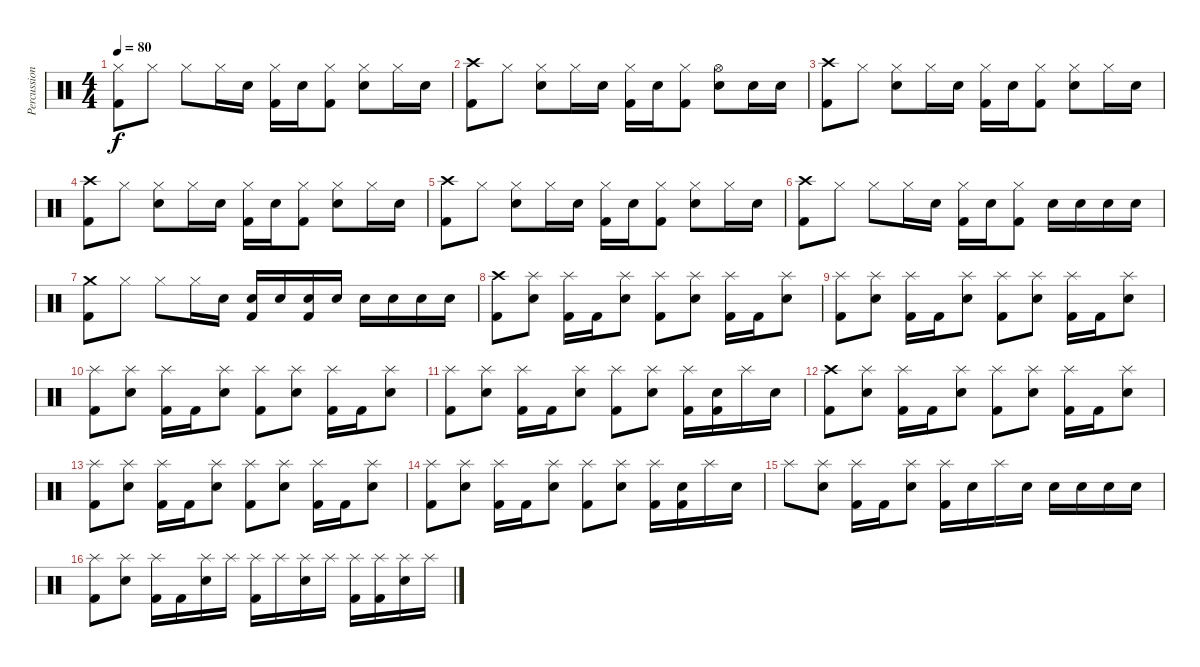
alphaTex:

\track ("Percussion" "Percussion") {instrument percussion}
\staff {score}
\articulation defaults
\ts (4 4)
\tempo 80
\clef neutral
\ks c
("Kick (hit) 2" "Hi-Hat (closed)").8{dy f} "Hi-Hat (closed)".8 "Hi-Hat (closed)".8 "Hi-Hat (closed)".16 "Snare (hit) 2".16 ("Kick (hit) 2" "Hi-Hat (closed)").16 "Snare (hit) 2".16 ("Kick (hit) 2" "Hi-Hat (closed)").8 ("Snare (hit) 2" "Hi-Hat (closed)").8 "Hi-Hat (closed)".16 "Snare (hit) 2".16 |
("Kick (hit) 2" "Crash high (hit)").8 "Hi-Hat (closed)".8 ("Snare (hit) 2" "Hi-Hat (closed)").8 "Hi-Hat (closed)".16 "Snare (hit) 2".16 ("Kick (hit) 2" "Hi-Hat (closed)").16 "Snare (hit) 2".16 ("Kick (hit) 2" "Hi-Hat (closed)").8 ("Snare (hit) 2" "Hi-Hat (open)").8 "Snare (hit) 2".16 "Snare (hit) 2".16 |
("Kick (hit) 2" "Crash high (hit)").8 "Hi-Hat (closed)".8 ("Snare (hit) 2" "Hi-Hat (closed)").8 "Hi-Hat (closed)".16 "Snare (hit) 2".16 ("Kick (hit) 2" "Hi-Hat (closed)").16 "Snare (hit) 2".16 ("Kick (hit) 2" "Hi-Hat (closed)").8 ("Snare (hit) 2" "Hi-Hat (closed)").8 "Hi-Hat (closed)".16 "Snare (hit) 2".16 |
("Kick (hit) 2" "Crash high (hit)").8 "Hi-Hat (closed)".8 ("Snare (hit) 2" "Hi-Hat (closed)").8 "Hi-Hat (closed)".16 "Snare (hit) 2".16 ("Kick (hit) 2" "Hi-Hat (closed)").16 "Snare (hit) 2".16 ("Kick (hit) 2" "Hi-Hat (closed)").8 ("Snare (hit) 2" "Hi-Hat (closed)").8 "Hi-Hat (closed)".16 "Snare (hit) 2".16 |
("Kick (hit) 2" "Crash high (hit)").8 "Hi-Hat (closed)".8 ("Snare (hit) 2" "Hi-Hat (closed)").8 "Hi-Hat (closed)".16 "Snare (hit) 2".16 ("Kick (hit) 2" "Hi-Hat (closed)").16 "Snare (hit) 2".16 ("Kick (hit) 2" "Hi-Hat (closed)").8 ("Snare (hit) 2" "Hi-Hat (closed)").8 "Hi-Hat (closed)".16 "Snare (hit) 2".16 |
("Kick (hit) 2" "Crash high (hit)").8 "Hi-Hat (closed)".8 "Hi-Hat (closed)".8 "Hi-Hat (closed)".16 "Snare (hit) 2".16 ("Kick (hit) 2" "Hi-Hat (closed)").16 "Snare (hit) 2".16 ("Kick (hit) 2" "Hi-Hat (closed)").8 "Snare (hit) 2".16 "Snare (hit) 2".16 "Snare (hit) 2".16 "Snare (hit) 2".16 |
("Kick (hit) 2" "Crash medium (hit)").8 "Hi-Hat (closed)".8 "Hi-Hat (closed)".8 "Hi-Hat (closed)".16 "Snare (hit) 2".16 ("Snare (hit) 2" "Kick (hit) 2").16 "Snare (hit) 2".16 ("Snare (hit) 2" "Kick (hit) 2").16 "Snare (hit) 2".16 "Snare (hit) 2".16 "Snare (hit) 2".16 "Snare (hit) 2".16 "Snare (hit) 2".16 |
("Kick (hit) 2" "Crash high (hit)").8 ("Snare (hit) 2" "Splash (hit)").8 ("Kick (hit) 2" "Splash (hit)").16 "Kick (hit) 2".16 ("Snare (hit) 2" "Splash (hit)").8 ("Kick (hit) 2" "Splash (hit)").8 ("Snare (hit) 2" "Splash (hit)").8 ("Kick (hit) 2" "Splash (hit)").16 "Kick (hit) 2".16 ("Snare (hit) 2" "Splash (hit)").8 |
("Kick (hit) 2" "Splash (hit)").8 ("Snare (hit) 2" "Splash (hit)").8 ("Kick (hit) 2" "Splash (hit)").16 "Kick (hit) 2".16 ("Snare (hit) 2" "Splash (hit)").8 ("Kick (hit) 2" "Splash (hit)").8 ("Snare (hit) 2" "Splash (hit)").8 ("Kick (hit) 2" "Splash (hit)").16 "Kick (hit) 2".16 ("Snare (hit) 2" "Splash (hit)").8 |
("Kick (hit) 2" "Splash (hit)").8 ("Snare (hit) 2" "Splash (hit)").8 ("Kick (hit) 2" "Splash (hit)").16 "Kick (hit) 2".16 ("Snare (hit) 2" "Splash (hit)").8 ("Kick (hit) 2" "Splash (hit)").8 ("Snare (hit) 2" "Splash (hit)").8 ("Kick (hit) 2" "Splash (hit)").16 "Kick (hit) 2".16 ("Snare (hit) 2" "Splash (hit)").8 |
("Kick (hit) 2" "Splash (hit)").8 ("Snare (hit) 2" "Splash (hit)").8 ("Kick (hit) 2" "Splash (hit)").16 "Kick (hit) 2".16 ("Snare (hit) 2" "Splash (hit)").8 ("Kick (hit) 2" "Splash (hit)").8 ("Snare (hit) 2" "Splash (hit)").8 ("Kick (hit) 2" "Splash (hit)").16 ("Kick (hit) 2" "Snare (hit) 2").16 "Splash (hit)".16 "Snare (hit) 2".16 |
("Kick (hit) 2" "Crash high (hit)").8 ("Snare (hit) 2" "Splash (hit)").8 ("Kick (hit) 2" "Splash (hit)").16 "Kick (hit) 2".16 ("Snare (hit) 2" "Splash (hit)").8 ("Kick (hit) 2" "Splash (hit)").8 ("Snare (hit) 2" "Splash (hit)").8 ("Kick (hit) 2" "Splash (hit)").16 "Kick (hit) 2".16 ("Snare (hit) 2" "Splash (hit)").8 |
("Kick (hit) 2" "Splash (hit)").8 ("Snare (hit) 2" "Splash (hit)").8 ("Kick (hit) 2" "Splash (hit)").16 "Kick (hit) 2".16 ("Snare (hit) 2" "Splash (hit)").8 ("Kick (hit) 2" "Splash (hit)").8 ("Snare (hit) 2" "Splash (hit)").8 ("Kick (hit) 2" "Splash (hit)").16 "Kick (hit) 2".16 ("Snare (hit) 2" "Splash (hit)").8 |
("Kick (hit) 2" "Splash (hit)").8 ("Snare (hit) 2" "Splash (hit)").8 ("Kick (hit) 2" "Splash (hit)").16 "Kick (hit) 2".16 ("Snare (hit) 2" "Splash (hit)").8 ("Kick (hit) 2" "Splash (hit)").8 ("Snare (hit) 2" "Splash (hit)").8 ("Kick (hit) 2" "Splash (hit)").16 ("Kick (hit) 2" "Snare (hit) 2").16 "Splash (hit)".16 "Snare (hit) 2".16 |
"Splash (hit)".8 ("Snare (hit) 2" "Splash (hit)").8 ("Kick (hit) 2" "Splash (hit)").16 "Kick (hit) 2".16 ("Snare (hit) 2" "Splash (hit)").8 ("Kick (hit) 2" "Splash (hit)").16 "Snare (hit) 2".16 "Splash (hit)".16 "Snare (hit) 2".16 "Snare (hit) 2".16 "Snare (hit) 2".16 "Snare (hit) 2".16 "Snare (hit) 2".16 |
("Kick (hit) 2" "Splash (hit)").8 ("Snare (hit) 2" "Splash (hit)").8 ("Kick (hit) 2" "Splash (hit)").16 "Kick (hit) 2".16 ("Snare (hit) 2" "Splash (hit)").16 "Splash (hit)".16 ("Kick (hit) 2" "Splash (hit)").16 "Splash (hit)".16 ("Snare (hit) 2" "Splash (hit)").16 "Splash (hit)".16 ("Kick (hit) 2" "Splash (hit)").16 ("Kick (hit) 2" "Splash (hit)").16 ("Snare (hit) 2" "Splash (hit)").16 "Splash (hit)".16
